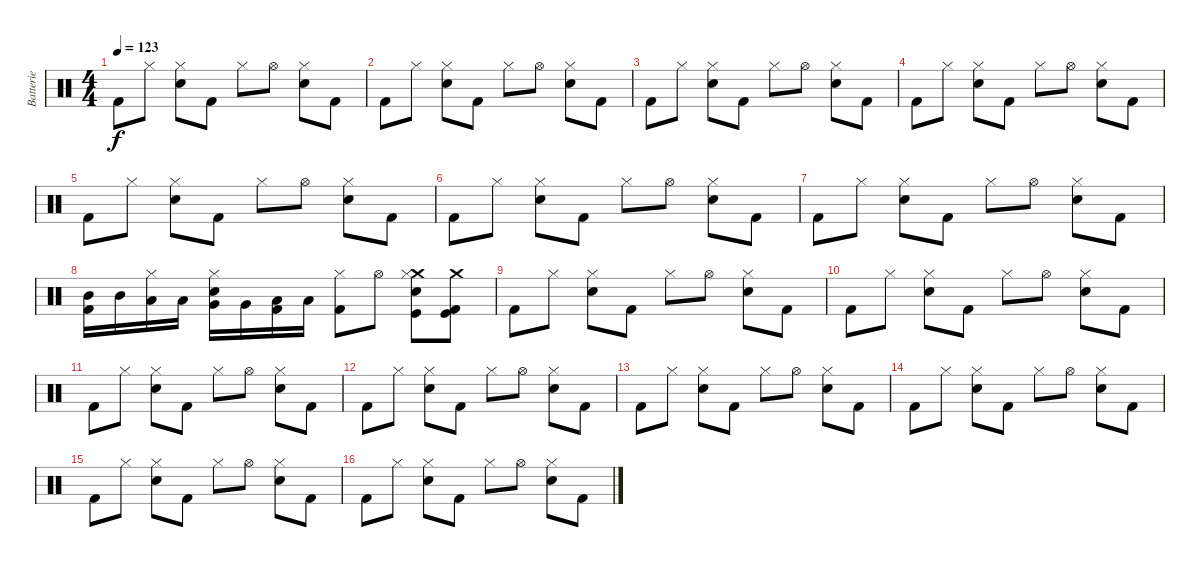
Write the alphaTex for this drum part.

\track ("Batterie" "Batterie") {instrument percussion}
\staff {score}
\articulation defaults
\ts (4 4)
\tempo 123
\clef neutral
\ks c "Kick (hit) 2".8{dy f} "Hi-Hat (closed)".8
("Electric Snare (hit)" "Hi-Hat (closed)").8 "Kick (hit) 2".8 "Hi-Hat (closed)".8 "Hi-Hat (open)".8 ("Snare (hit) 2" "Hi-Hat (closed)").8 "Kick (hit) 2".8 |
"Kick (hit) 2".8 "Hi-Hat (closed)".8 ("Snare (hit) 2" "Hi-Hat (closed)").8 "Kick (hit) 2".8 "Hi-Hat (closed)".8 "Hi-Hat (open)".8 ("Electric Snare (hit)" "Hi-Hat (closed)").8 "Kick (hit) 2".8 |
"Kick (hit) 2".8 "Hi-Hat (closed)".8 ("Electric Snare (hit)" "Hi-Hat (closed)").8 "Kick (hit) 2".8 "Hi-Hat (closed)".8 "Hi-Hat (open)".8 ("Snare (hit) 2" "Hi-Hat (closed)").8 "Kick (hit) 2".8 |
"Kick (hit) 2".8 "Hi-Hat (closed)".8 ("Snare (hit) 2" "Hi-Hat (closed)").8 "Kick (hit) 2".8 "Hi-Hat (closed)".8 "Hi-Hat (open)".8 ("Electric Snare (hit)" "Hi-Hat (closed)").8 "Kick (hit) 2".8 |
"Kick (hit) 2".8 "Hi-Hat (closed)".8 ("Electric Snare (hit)" "Hi-Hat (closed)").8 "Kick (hit) 2".8 "Hi-Hat (closed)".8 "Hi-Hat (open)".8 ("Snare (hit) 2" "Hi-Hat (closed)").8 "Kick (hit) 2".8 |
"Kick (hit) 2".8 "Hi-Hat (closed)".8 ("Snare (hit) 2" "Hi-Hat (closed)").8 "Kick (hit) 2".8 "Hi-Hat (closed)".8 "Hi-Hat (open)".8 ("Electric Snare (hit)" "Hi-Hat (closed)").8 "Kick (hit) 2".8 |
"Kick (hit) 2".8 "Hi-Hat (closed)".8 ("Electric Snare (hit)" "Hi-Hat (closed)").8 "Kick (hit) 2".8 "Hi-Hat (closed)".8 "Hi-Hat (open)".8 ("Snare (hit) 2" "Hi-Hat (closed)").8 "Kick (hit) 2".8 |
("Kick (hit) 2" "Mid Tom (hit)").16 "Mid Tom (hit)".16 ("Low Tom (hit)" "Hi-Hat (closed)").16 "Low Tom (hit)".16 ("Snare (hit) 2" "Very Low Tom (hit)" "Hi-Hat (closed)").16 "Very Low Tom (hit)".16 ("Kick (hit) 2" "Low Floor Tom (hit)").16 "Low Floor Tom (hit)".16 ("Kick (hit) 2" "Hi-Hat (closed)").8 "Hi-Hat (open)".8 ("Electric Snare (hit)" "Kick (hit)" "Crash medium (hit)" "Hi-Hat (closed)").8 ("Kick (hit) 2" "Kick (hit)" "Crash medium (hit)").8 |
"Kick (hit) 2".8 "Hi-Hat (closed)".8 ("Electric Snare (hit)" "Hi-Hat (closed)").8 "Kick (hit) 2".8 "Hi-Hat (closed)".8 "Hi-Hat (open)".8 ("Snare (hit) 2" "Hi-Hat (closed)").8 "Kick (hit) 2".8 |
"Kick (hit) 2".8 "Hi-Hat (closed)".8 ("Snare (hit) 2" "Hi-Hat (closed)").8 "Kick (hit) 2".8 "Hi-Hat (closed)".8 "Hi-Hat (open)".8 ("Electric Snare (hit)" "Hi-Hat (closed)").8 "Kick (hit) 2".8 |
"Kick (hit) 2".8 "Hi-Hat (closed)".8 ("Electric Snare (hit)" "Hi-Hat (closed)").8 "Kick (hit) 2".8 "Hi-Hat (closed)".8 "Hi-Hat (open)".8 ("Snare (hit) 2" "Hi-Hat (closed)").8 "Kick (hit) 2".8 |
"Kick (hit) 2".8 "Hi-Hat (closed)".8 ("Snare (hit) 2" "Hi-Hat (closed)").8 "Kick (hit) 2".8 "Hi-Hat (closed)".8 "Hi-Hat (open)".8 ("Electric Snare (hit)" "Hi-Hat (closed)").8 "Kick (hit) 2".8 |
"Kick (hit) 2".8 "Hi-Hat (closed)".8 ("Electric Snare (hit)" "Hi-Hat (closed)").8 "Kick (hit) 2".8 "Hi-Hat (closed)".8 "Hi-Hat (open)".8 ("Snare (hit) 2" "Hi-Hat (closed)").8 "Kick (hit) 2".8 |
"Kick (hit) 2".8 "Hi-Hat (closed)".8 ("Snare (hit) 2" "Hi-Hat (closed)").8 "Kick (hit) 2".8 "Hi-Hat (closed)".8 "Hi-Hat (open)".8 ("Electric Snare (hit)" "Hi-Hat (closed)").8 "Kick (hit) 2".8 |
"Kick (hit) 2".8 "Hi-Hat (closed)".8 ("Electric Snare (hit)" "Hi-Hat (closed)").8 "Kick (hit) 2".8 "Hi-Hat (closed)".8 "Hi-Hat (open)".8 ("Snare (hit) 2" "Hi-Hat (closed)").8 "Kick (hit) 2".8 |
"Kick (hit) 2".8 "Hi-Hat (closed)".8 ("Snare (hit) 2" "Hi-Hat (closed)").8 "Kick (hit) 2".8 "Hi-Hat (closed)".8 "Hi-Hat (open)".8 ("Electric Snare (hit)" "Hi-Hat (closed)").8 "Kick (hit) 2".8
